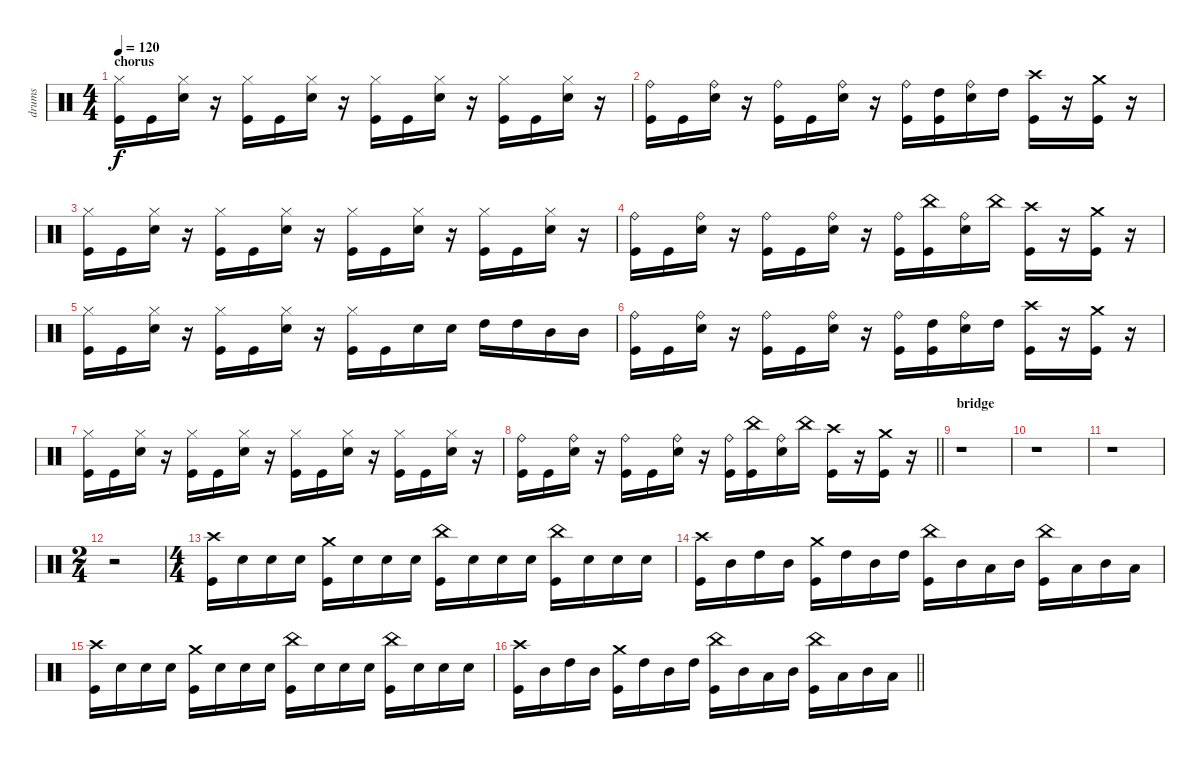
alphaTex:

\track ("drums" "drums") {instrument percussion}
\staff {score}
\articulation defaults
\ts (4 4)
\section ("" "chorus")
\tempo 120
\clef neutral
\ks c
("Hi-Hat (closed)" "Kick (hit)").16{dy f} "Kick (hit)".16 ("Hi-Hat (closed)" "Electric Snare (hit)").16 r.16 ("Hi-Hat (closed)" "Kick (hit)").16 "Kick (hit)".16 ("Hi-Hat (closed)" "Electric Snare (hit)").16 r.16 ("Hi-Hat (closed)" "Kick (hit)").16 "Kick (hit)".16 ("Hi-Hat (closed)" "Electric Snare (hit)").16 r.16 ("Hi-Hat (closed)" "Kick (hit)").16 "Kick (hit)".16 ("Hi-Hat (closed)" "Electric Snare (hit)").16 r.16 |
("Ride (bell)" "Kick (hit)").16 "Kick (hit)".16 ("Ride (bell)" "Electric Snare (hit)").16 r.16 ("Ride (bell)" "Kick (hit)").16 "Kick (hit)".16 ("Ride (bell)" "Electric Snare (hit)").16 r.16 ("Ride (bell)" "Kick (hit)").16 ("High Tom (hit)" "Kick (hit)").16 ("Ride (bell)" "Electric Snare (hit)").16 "High Tom (hit)".16 ("Crash high (hit)" "Kick (hit)").16 r.16 ("Crash medium (hit)" "Kick (hit)").16 r.16 |
("Hi-Hat (closed)" "Kick (hit)").16 "Kick (hit)".16 ("Hi-Hat (closed)" "Electric Snare (hit)").16 r.16 ("Hi-Hat (closed)" "Kick (hit)").16 "Kick (hit)".16 ("Hi-Hat (closed)" "Electric Snare (hit)").16 r.16 ("Hi-Hat (closed)" "Kick (hit)").16 "Kick (hit)".16 ("Hi-Hat (closed)" "Electric Snare (hit)").16 r.16 ("Hi-Hat (closed)" "Kick (hit)").16 "Kick (hit)".16 ("Hi-Hat (closed)" "Electric Snare (hit)").16 r.16 |
("Ride (bell)" "Kick (hit)").16 "Kick (hit)".16 ("Ride (bell)" "Electric Snare (hit)").16 r.16 ("Ride (bell)" "Kick (hit)").16 "Kick (hit)".16 ("Ride (bell)" "Electric Snare (hit)").16 r.16 ("Ride (bell)" "Kick (hit)").16 ("China (hit)" "Kick (hit)").16 ("Ride (bell)" "Electric Snare (hit)").16 "China (hit)".16 ("Crash high (hit)" "Kick (hit)").16 r.16 ("Crash medium (hit)" "Kick (hit)").16 r.16 |
("Hi-Hat (closed)" "Kick (hit)").16 "Kick (hit)".16 ("Hi-Hat (closed)" "Electric Snare (hit)").16 r.16 ("Hi-Hat (closed)" "Kick (hit)").16 "Kick (hit)".16 ("Hi-Hat (closed)" "Electric Snare (hit)").16 r.16 ("Hi-Hat (closed)" "Kick (hit)").16 "Kick (hit)".16 "Electric Snare (hit)".16 "Electric Snare (hit)".16 "High Tom (hit)".16 "High Tom (hit)".16 "Mid Tom (hit)".16 "Mid Tom (hit)".16 |
("Ride (bell)" "Kick (hit)").16 "Kick (hit)".16 ("Ride (bell)" "Electric Snare (hit)").16 r.16 ("Ride (bell)" "Kick (hit)").16 "Kick (hit)".16 ("Ride (bell)" "Electric Snare (hit)").16 r.16 ("Ride (bell)" "Kick (hit)").16 ("High Tom (hit)" "Kick (hit)").16 ("Ride (bell)" "Electric Snare (hit)").16 "High Tom (hit)".16 ("Crash high (hit)" "Kick (hit)").16 r.16 ("Crash medium (hit)" "Kick (hit)").16 r.16 |
("Hi-Hat (closed)" "Kick (hit)").16 "Kick (hit)".16 ("Hi-Hat (closed)" "Electric Snare (hit)").16 r.16 ("Hi-Hat (closed)" "Kick (hit)").16 "Kick (hit)".16 ("Hi-Hat (closed)" "Electric Snare (hit)").16 r.16 ("Hi-Hat (closed)" "Kick (hit)").16 "Kick (hit)".16 ("Hi-Hat (closed)" "Electric Snare (hit)").16 r.16 ("Hi-Hat (closed)" "Kick (hit)").16 "Kick (hit)".16 ("Hi-Hat (closed)" "Electric Snare (hit)").16 r.16 |
\barLineRight lightlight
("Ride (bell)" "Kick (hit)").16 "Kick (hit)".16 ("Ride (bell)" "Electric Snare (hit)").16 r.16 ("Ride (bell)" "Kick (hit)").16 "Kick (hit)".16 ("Ride (bell)" "Electric Snare (hit)").16 r.16 ("Ride (bell)" "Kick (hit)").16 ("China (hit)" "Kick (hit)").16 ("Ride (bell)" "Electric Snare (hit)").16 "China (hit)".16 ("Crash high (hit)" "Kick (hit)").16 r.16 ("Crash medium (hit)" "Kick (hit)").16 r.16 |
\section ("" "bridge")
r.1 |
r.1 |
r.1 |
\ts (2 4)
r.2 |
\ts (4 4)
("Crash high (hit)" "Kick (hit)").16 "Electric Snare (hit)".16 "Electric Snare (hit)".16 "Electric Snare (hit)".16 ("Crash medium (hit)" "Kick (hit)").16 "Electric Snare (hit)".16 "Electric Snare (hit)".16 "Electric Snare (hit)".16 ("China (hit)" "Kick (hit)").16 "Electric Snare (hit)".16 "Electric Snare (hit)".16 "Electric Snare (hit)".16 ("China (hit)" "Kick (hit)").16 "Electric Snare (hit)".16 "Electric Snare (hit)".16 "Electric Snare (hit)".16 |
("Crash high (hit)" "Kick (hit)").16 "Mid Tom (hit)".16 "High Tom (hit)".16 "Mid Tom (hit)".16 ("Crash medium (hit)" "Kick (hit)").16 "High Tom (hit)".16 "Mid Tom (hit)".16 "High Tom (hit)".16 ("China (hit)" "Kick (hit)").16 "Mid Tom (hit)".16 "Low Tom (hit)".16 "Mid Tom (hit)".16 ("China (hit)" "Kick (hit)").16 "Low Tom (hit)".16 "Mid Tom (hit)".16 "Low Tom (hit)".16 |
("Crash high (hit)" "Kick (hit)").16 "Electric Snare (hit)".16 "Electric Snare (hit)".16 "Electric Snare (hit)".16 ("Crash medium (hit)" "Kick (hit)").16 "Electric Snare (hit)".16 "Electric Snare (hit)".16 "Electric Snare (hit)".16 ("China (hit)" "Kick (hit)").16 "Electric Snare (hit)".16 "Electric Snare (hit)".16 "Electric Snare (hit)".16 ("China (hit)" "Kick (hit)").16 "Electric Snare (hit)".16 "Electric Snare (hit)".16 "Electric Snare (hit)".16 |
\barLineRight lightlight
("Crash high (hit)" "Kick (hit)").16 "Mid Tom (hit)".16 "High Tom (hit)".16 "Mid Tom (hit)".16 ("Crash medium (hit)" "Kick (hit)").16 "High Tom (hit)".16 "Mid Tom (hit)".16 "High Tom (hit)".16 ("China (hit)" "Kick (hit)").16 "Mid Tom (hit)".16 "Low Tom (hit)".16 "Mid Tom (hit)".16 ("China (hit)" "Kick (hit)").16 "Low Tom (hit)".16 "Mid Tom (hit)".16 "Low Tom (hit)".16
